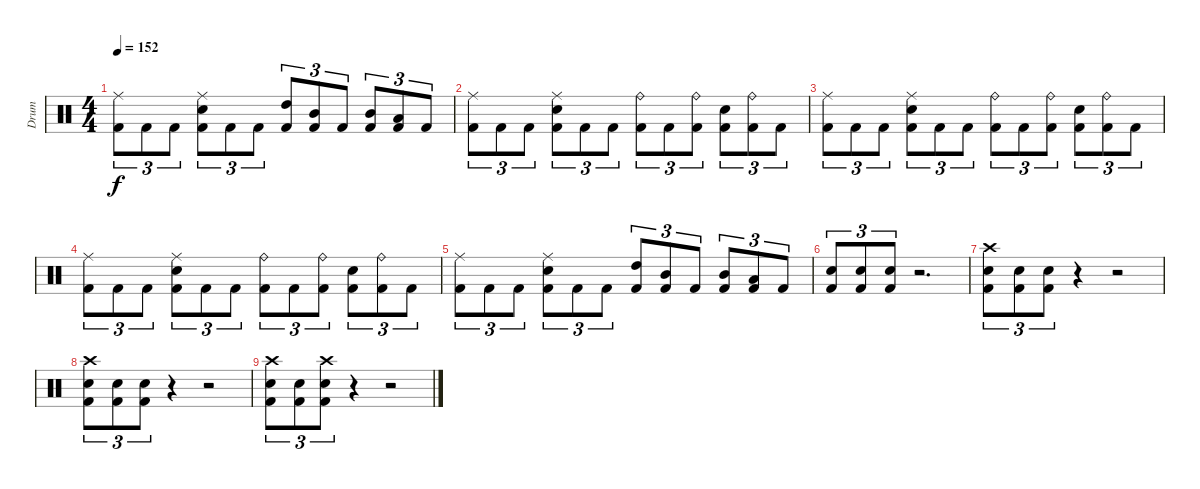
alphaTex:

\track ("Drum" "Drum") {instrument percussion}
\staff {score}
\articulation defaults
\ts (4 4)
\tempo 152
\clef neutral
\ks c
("Ride (middle)" "Kick (hit) 2").8{tu (3 2) dy f} "Kick (hit) 2".8{tu (3 2)} "Kick (hit) 2".8{tu (3 2)} ("Kick (hit) 2" "Electric Snare (hit)" "Ride (middle)").8{tu (3 2)} "Kick (hit) 2".8{tu (3 2)} "Kick (hit) 2".8{tu (3 2)} ("Kick (hit) 2" "High Tom (hit)").8{tu (3 2)} ("Kick (hit) 2" "Mid Tom (hit)").8{tu (3 2)} "Kick (hit) 2".8{tu (3 2)} ("Mid Tom (hit)" "Kick (hit) 2").8{tu (3 2)} ("Low Tom (hit)" "Kick (hit) 2").8{tu (3 2)} "Kick (hit) 2".8{tu (3 2)} |
("Ride (middle)" "Kick (hit) 2").8{tu (3 2)} "Kick (hit) 2".8{tu (3 2)} "Kick (hit) 2".8{tu (3 2)} ("Kick (hit) 2" "Electric Snare (hit)" "Ride (middle)").8{tu (3 2)} "Kick (hit) 2".8{tu (3 2)} "Kick (hit) 2".8{tu (3 2)} ("Kick (hit) 2" "Ride (bell)").8{tu (3 2)} "Kick (hit) 2".8{tu (3 2)} ("Kick (hit) 2" "Ride (bell)").8{tu (3 2)} ("Electric Snare (hit)" "Kick (hit) 2").8{tu (3 2)} ("Kick (hit) 2" "Ride (bell)").8{tu (3 2)} "Kick (hit) 2".8{tu (3 2)} |
("Kick (hit) 2" "Ride (middle)").8{tu (3 2)} "Kick (hit) 2".8{tu (3 2)} "Kick (hit) 2".8{tu (3 2)} ("Ride (middle)" "Kick (hit) 2" "Electric Snare (hit)").8{tu (3 2)} "Kick (hit) 2".8{tu (3 2)} "Kick (hit) 2".8{tu (3 2)} ("Kick (hit) 2" "Ride (bell)").8{tu (3 2)} "Kick (hit) 2".8{tu (3 2)} ("Kick (hit) 2" "Ride (bell)").8{tu (3 2)} ("Kick (hit) 2" "Electric Snare (hit)").8{tu (3 2)} ("Kick (hit) 2" "Ride (bell)").8{tu (3 2)} "Kick (hit) 2".8{tu (3 2)} |
("Ride (middle)" "Kick (hit) 2").8{tu (3 2)} "Kick (hit) 2".8{tu (3 2)} "Kick (hit) 2".8{tu (3 2)} ("Ride (middle)" "Kick (hit) 2" "Electric Snare (hit)").8{tu (3 2)} "Kick (hit) 2".8{tu (3 2)} "Kick (hit) 2".8{tu (3 2)} ("Ride (bell)" "Kick (hit) 2").8{tu (3 2)} "Kick (hit) 2".8{tu (3 2)} ("Ride (bell)" "Kick (hit) 2").8{tu (3 2)} ("Electric Snare (hit)" "Kick (hit) 2").8{tu (3 2)} ("Ride (bell)" "Kick (hit) 2").8{tu (3 2)} "Kick (hit) 2".8{tu (3 2)} |
("Ride (middle)" "Kick (hit) 2").8{tu (3 2)} "Kick (hit) 2".8{tu (3 2)} "Kick (hit) 2".8{tu (3 2)} ("Electric Snare (hit)" "Ride (middle)" "Kick (hit) 2").8{tu (3 2)} "Kick (hit) 2".8{tu (3 2)} "Kick (hit) 2".8{tu (3 2)} ("Kick (hit) 2" "High Tom (hit)").8{tu (3 2)} ("Kick (hit) 2" "Mid Tom (hit)").8{tu (3 2)} "Kick (hit) 2".8{tu (3 2)} ("Kick (hit) 2" "Mid Tom (hit)").8{tu (3 2)} ("Low Tom (hit)" "Kick (hit) 2").8{tu (3 2)} "Kick (hit) 2".8{tu (3 2)} |
("Electric Snare (hit)" "Kick (hit) 2").8{tu (3 2)} ("Electric Snare (hit)" "Kick (hit) 2").8{tu (3 2)} ("Kick (hit) 2" "Electric Snare (hit)").8{tu (3 2)} r.2{d} |
("Crash high (hit)" "Kick (hit) 2" "Electric Snare (hit)").8{tu (3 2)} ("Kick (hit) 2" "Electric Snare (hit)").8{tu (3 2)} ("Kick (hit) 2" "Electric Snare (hit)").8{tu (3 2)} r.4 r.2 |
("Crash high (hit)" "Electric Snare (hit)" "Kick (hit) 2").8{tu (3 2)} ("Electric Snare (hit)" "Kick (hit) 2").8{tu (3 2)} ("Kick (hit) 2" "Electric Snare (hit)").8{tu (3 2)} r.4 r.2 |
("Electric Snare (hit)" "Kick (hit) 2" "Crash high (hit)").8{tu (3 2)} ("Electric Snare (hit)" "Kick (hit) 2").8{tu (3 2)} ("Crash high (hit)" "Electric Snare (hit)" "Kick (hit) 2").8{tu (3 2)} r.4 r.2
